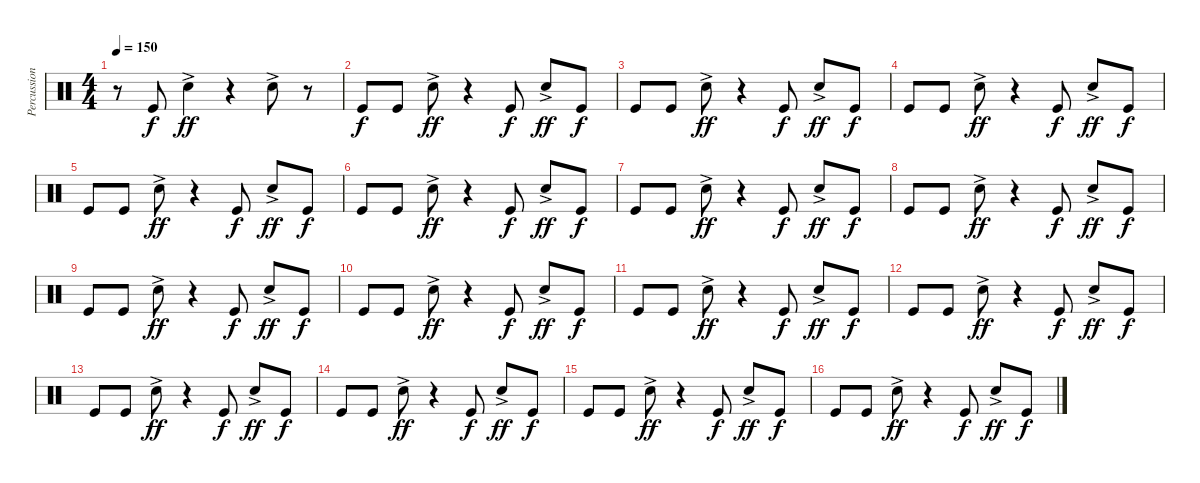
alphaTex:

\track ("Percussion" "Percussion") {instrument percussion}
\staff {score}
\articulation defaults
\ts (4 4)
\tempo 150
\clef neutral
\ks c
r.8{dy f} "Kick (hit)".8 "Snare (hit) 2"{ac}.4{dy ff} r.4 "Snare (hit) 2"{ac}.8 r.8 |
"Kick (hit)".8{dy f} "Kick (hit)".8 "Snare (hit) 2"{ac}.8{dy ff} r.4 "Kick (hit)".8{dy f} "Snare (hit) 2"{ac}.8{dy ff} "Kick (hit)".8{dy f} |
"Kick (hit)".8 "Kick (hit)".8 "Snare (hit) 2"{ac}.8{dy ff} r.4 "Kick (hit)".8{dy f} "Snare (hit) 2"{ac}.8{dy ff} "Kick (hit)".8{dy f} |
"Kick (hit)".8 "Kick (hit)".8 "Snare (hit) 2"{ac}.8{dy ff} r.4 "Kick (hit)".8{dy f} "Snare (hit) 2"{ac}.8{dy ff} "Kick (hit)".8{dy f} |
"Kick (hit)".8 "Kick (hit)".8 "Snare (hit) 2"{ac}.8{dy ff} r.4 "Kick (hit)".8{dy f} "Snare (hit) 2"{ac}.8{dy ff} "Kick (hit)".8{dy f} |
"Kick (hit)".8 "Kick (hit)".8 "Snare (hit) 2"{ac}.8{dy ff} r.4 "Kick (hit)".8{dy f} "Snare (hit) 2"{ac}.8{dy ff} "Kick (hit)".8{dy f} |
"Kick (hit)".8 "Kick (hit)".8 "Snare (hit) 2"{ac}.8{dy ff} r.4 "Kick (hit)".8{dy f} "Snare (hit) 2"{ac}.8{dy ff} "Kick (hit)".8{dy f} |
"Kick (hit)".8 "Kick (hit)".8 "Snare (hit) 2"{ac}.8{dy ff} r.4 "Kick (hit)".8{dy f} "Snare (hit) 2"{ac}.8{dy ff} "Kick (hit)".8{dy f} |
"Kick (hit)".8 "Kick (hit)".8 "Snare (hit) 2"{ac}.8{dy ff} r.4 "Kick (hit)".8{dy f} "Snare (hit) 2"{ac}.8{dy ff} "Kick (hit)".8{dy f} |
"Kick (hit)".8 "Kick (hit)".8 "Snare (hit) 2"{ac}.8{dy ff} r.4 "Kick (hit)".8{dy f} "Snare (hit) 2"{ac}.8{dy ff} "Kick (hit)".8{dy f} |
"Kick (hit)".8 "Kick (hit)".8 "Snare (hit) 2"{ac}.8{dy ff} r.4 "Kick (hit)".8{dy f} "Snare (hit) 2"{ac}.8{dy ff} "Kick (hit)".8{dy f} |
"Kick (hit)".8 "Kick (hit)".8 "Snare (hit) 2"{ac}.8{dy ff} r.4 "Kick (hit)".8{dy f} "Snare (hit) 2"{ac}.8{dy ff} "Kick (hit)".8{dy f} |
"Kick (hit)".8 "Kick (hit)".8 "Snare (hit) 2"{ac}.8{dy ff} r.4 "Kick (hit)".8{dy f} "Snare (hit) 2"{ac}.8{dy ff} "Kick (hit)".8{dy f} |
"Kick (hit)".8 "Kick (hit)".8 "Snare (hit) 2"{ac}.8{dy ff} r.4 "Kick (hit)".8{dy f} "Snare (hit) 2"{ac}.8{dy ff} "Kick (hit)".8{dy f} |
"Kick (hit)".8 "Kick (hit)".8 "Snare (hit) 2"{ac}.8{dy ff} r.4 "Kick (hit)".8{dy f} "Snare (hit) 2"{ac}.8{dy ff} "Kick (hit)".8{dy f} |
"Kick (hit)".8 "Kick (hit)".8 "Snare (hit) 2"{ac}.8{dy ff} r.4 "Kick (hit)".8{dy f} "Snare (hit) 2"{ac}.8{dy ff} "Kick (hit)".8{dy f}
